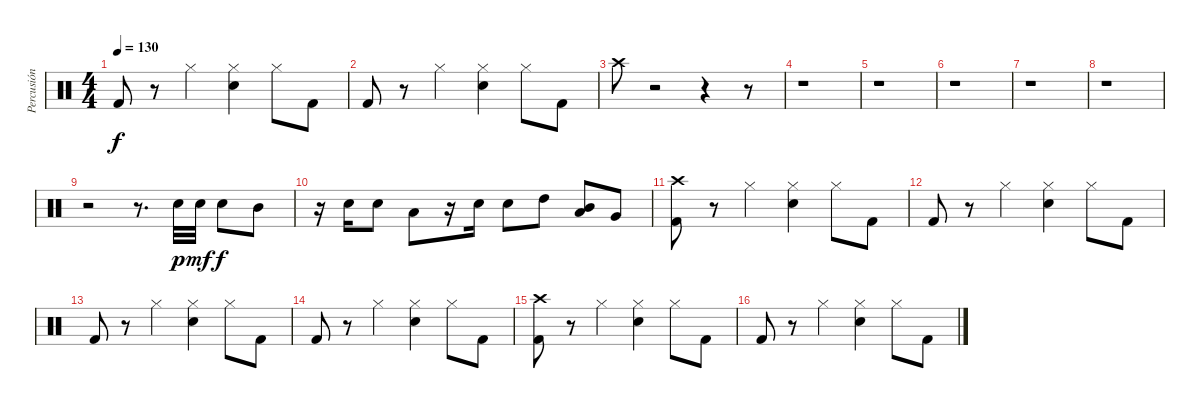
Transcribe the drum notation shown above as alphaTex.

\track ("Percusión" "Percusión") {instrument percussion}
\staff {score}
\articulation defaults
\ts (4 4)
\tempo 130
\clef neutral
\ks c "Kick (hit) 2".8{dy f}
r.8 "Hi-Hat (closed)".4 ("Electric Snare (hit)" "Hi-Hat (closed)").4 "Hi-Hat (closed)".8 "Kick (hit) 2".8 |
"Kick (hit) 2".8 r.8 "Hi-Hat (closed)".4 ("Electric Snare (hit)" "Hi-Hat (closed)").4 "Hi-Hat (closed)".8 "Kick (hit) 2".8 |
"Crash high (hit)".8 r.2 r.4 r.8 |
r.1 |
r.1 |
r.1 |
r.1 |
r.1 |
r.2 r.8{d} "Electric Snare (hit)".32{dy p} "Electric Snare (hit)".32{dy mf} "Electric Snare (hit)".8{dy f} "Mid Tom (hit)".8 |
r.16 "Electric Snare (hit)".16 "Electric Snare (hit)".8 "Low Tom (hit)".8 r.16 "Electric Snare (hit)".16 "Electric Snare (hit)".8 "High Tom (hit)".8 ("Low Tom (hit)" "Mid Tom (hit)").8 "Very Low Tom (hit)".8 |
("Crash high (hit)" "Kick (hit) 2").8 r.8 "Hi-Hat (closed)".4 ("Electric Snare (hit)" "Hi-Hat (closed)").4 "Hi-Hat (closed)".8 "Kick (hit) 2".8 |
"Kick (hit) 2".8 r.8 "Hi-Hat (closed)".4 ("Electric Snare (hit)" "Hi-Hat (closed)").4 "Hi-Hat (closed)".8 "Kick (hit) 2".8 |
"Kick (hit) 2".8 r.8 "Hi-Hat (closed)".4 ("Electric Snare (hit)" "Hi-Hat (closed)").4 "Hi-Hat (closed)".8 "Kick (hit) 2".8 |
"Kick (hit) 2".8 r.8 "Hi-Hat (closed)".4 ("Electric Snare (hit)" "Hi-Hat (closed)").4 "Hi-Hat (closed)".8 "Kick (hit) 2".8 |
("Crash high (hit)" "Kick (hit) 2").8 r.8 "Hi-Hat (closed)".4 ("Electric Snare (hit)" "Hi-Hat (closed)").4 "Hi-Hat (closed)".8 "Kick (hit) 2".8 |
"Kick (hit) 2".8 r.8 "Hi-Hat (closed)".4 ("Electric Snare (hit)" "Hi-Hat (closed)").4 "Hi-Hat (closed)".8 "Kick (hit) 2".8
